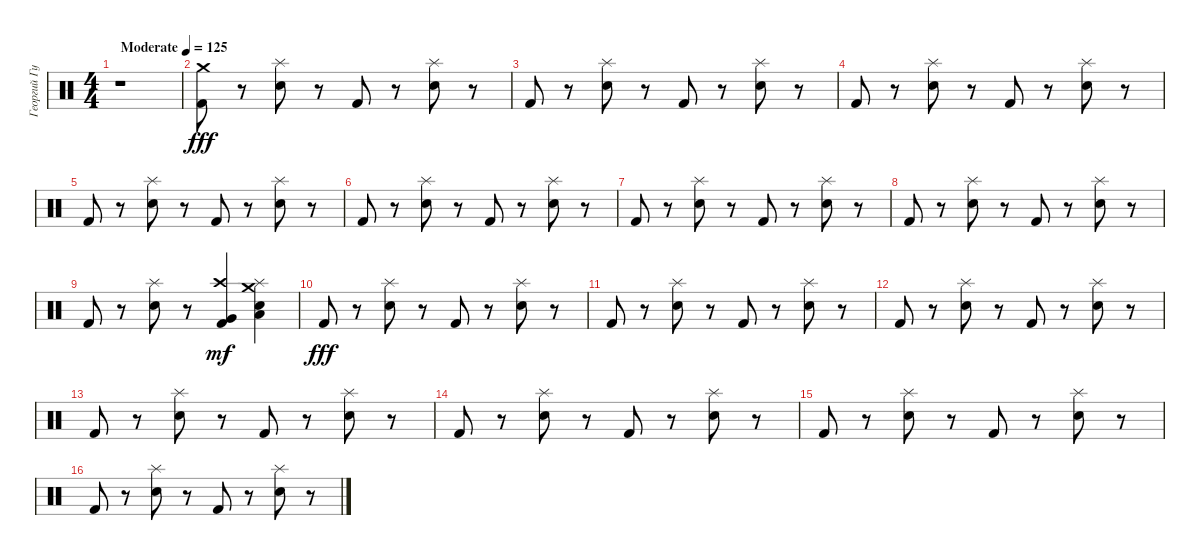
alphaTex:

\track ("Георгий Гурьянов" "Георгий Гу") {instrument percussion}
\staff {score}
\articulation defaults
\ts (4 4)
\tempo (125 "Moderate")
\clef neutral
\ks c
r.1{dy fff} |
("Kick (hit) 2" "Crash medium (hit)").8 r.8 ("Snare (hit) 2" "Splash (hit)").8 r.8 "Kick (hit) 2".8 r.8 ("Snare (hit) 2" "Splash (hit)").8 r.8 |
"Kick (hit) 2".8 r.8 ("Snare (hit) 2" "Splash (hit)").8 r.8 "Kick (hit) 2".8 r.8 ("Snare (hit) 2" "Splash (hit)").8 r.8 |
"Kick (hit) 2".8 r.8 ("Snare (hit) 2" "Splash (hit)").8 r.8 "Kick (hit) 2".8 r.8 ("Snare (hit) 2" "Splash (hit)").8 r.8 |
"Kick (hit) 2".8 r.8 ("Snare (hit) 2" "Splash (hit)").8 r.8 "Kick (hit) 2".8 r.8 ("Snare (hit) 2" "Splash (hit)").8 r.8 |
"Kick (hit) 2".8 r.8 ("Snare (hit) 2" "Splash (hit)").8 r.8 "Kick (hit) 2".8 r.8 ("Snare (hit) 2" "Splash (hit)").8 r.8 |
"Kick (hit) 2".8 r.8 ("Snare (hit) 2" "Splash (hit)").8 r.8 "Kick (hit) 2".8 r.8 ("Snare (hit) 2" "Splash (hit)").8 r.8 |
"Kick (hit) 2".8 r.8 ("Snare (hit) 2" "Splash (hit)").8 r.8 "Kick (hit) 2".8 r.8 ("Snare (hit) 2" "Splash (hit)").8 r.8 |
"Kick (hit) 2".8 r.8 ("Snare (hit) 2" "Splash (hit)").8 r.8 ("Kick (hit) 2" "Crash high (hit)" "Very Low Tom (hit)").4{dy mf} ("Snare (hit) 2" "Splash (hit)" "Crash medium (hit)" "Low Tom (hit)").4 |
"Kick (hit) 2".8{dy fff} r.8 ("Snare (hit) 2" "Splash (hit)").8 r.8 "Kick (hit) 2".8 r.8 ("Snare (hit) 2" "Splash (hit)").8 r.8 |
"Kick (hit) 2".8 r.8 ("Snare (hit) 2" "Splash (hit)").8 r.8 "Kick (hit) 2".8 r.8 ("Snare (hit) 2" "Splash (hit)").8 r.8 |
"Kick (hit) 2".8 r.8 ("Snare (hit) 2" "Splash (hit)").8 r.8 "Kick (hit) 2".8 r.8 ("Snare (hit) 2" "Splash (hit)").8 r.8 |
"Kick (hit) 2".8 r.8 ("Snare (hit) 2" "Splash (hit)").8 r.8 "Kick (hit) 2".8 r.8 ("Snare (hit) 2" "Splash (hit)").8 r.8 |
"Kick (hit) 2".8 r.8 ("Snare (hit) 2" "Splash (hit)").8 r.8 "Kick (hit) 2".8 r.8 ("Snare (hit) 2" "Splash (hit)").8 r.8 |
"Kick (hit) 2".8 r.8 ("Snare (hit) 2" "Splash (hit)").8 r.8 "Kick (hit) 2".8 r.8 ("Snare (hit) 2" "Splash (hit)").8 r.8 |
"Kick (hit) 2".8 r.8 ("Snare (hit) 2" "Splash (hit)").8 r.8 "Kick (hit) 2".8 r.8 ("Snare (hit) 2" "Splash (hit)").8 r.8
